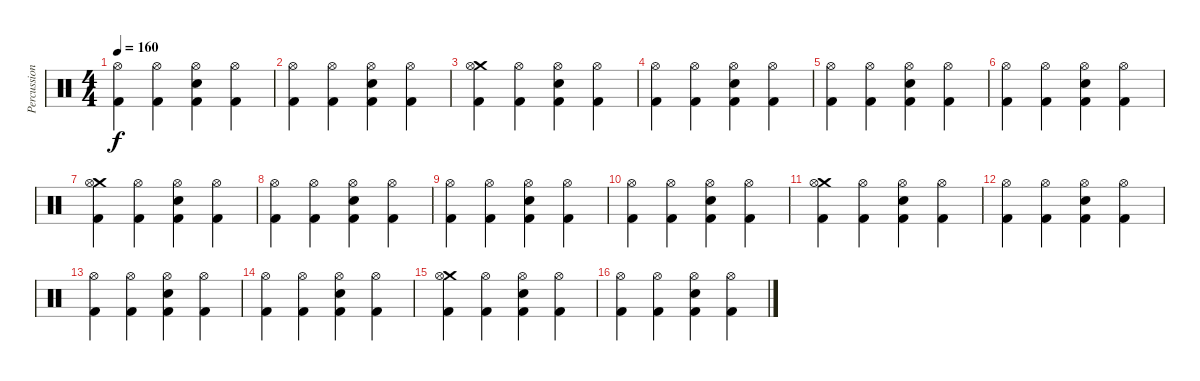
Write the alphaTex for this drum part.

\track ("Percussion" "Percussion") {instrument percussion}
\staff {score}
\articulation defaults
\ts (4 4)
\tempo 160
\clef neutral
\ks c
("Hi-Hat (open)" "Kick (hit) 2").4{dy f} ("Hi-Hat (open)" "Kick (hit) 2").4 ("Hi-Hat (open)" "Electric Snare (hit)" "Kick (hit) 2").4 ("Hi-Hat (open)" "Kick (hit) 2").4 |
("Hi-Hat (open)" "Kick (hit) 2").4 ("Hi-Hat (open)" "Kick (hit) 2").4 ("Hi-Hat (open)" "Electric Snare (hit)" "Kick (hit) 2").4 ("Hi-Hat (open)" "Kick (hit) 2").4 |
("Crash medium (hit)" "Hi-Hat (open)" "Kick (hit) 2").4 ("Hi-Hat (open)" "Kick (hit) 2").4 ("Hi-Hat (open)" "Electric Snare (hit)" "Kick (hit) 2").4 ("Hi-Hat (open)" "Kick (hit) 2").4 |
("Hi-Hat (open)" "Kick (hit) 2").4 ("Hi-Hat (open)" "Kick (hit) 2").4 ("Hi-Hat (open)" "Electric Snare (hit)" "Kick (hit) 2").4 ("Hi-Hat (open)" "Kick (hit) 2").4 |
("Hi-Hat (open)" "Kick (hit) 2").4 ("Hi-Hat (open)" "Kick (hit) 2").4 ("Hi-Hat (open)" "Electric Snare (hit)" "Kick (hit) 2").4 ("Hi-Hat (open)" "Kick (hit) 2").4 |
("Hi-Hat (open)" "Kick (hit) 2").4 ("Hi-Hat (open)" "Kick (hit) 2").4 ("Hi-Hat (open)" "Electric Snare (hit)" "Kick (hit) 2").4 ("Hi-Hat (open)" "Kick (hit) 2").4 |
("Crash medium (hit)" "Hi-Hat (open)" "Kick (hit) 2").4 ("Hi-Hat (open)" "Kick (hit) 2").4 ("Hi-Hat (open)" "Electric Snare (hit)" "Kick (hit) 2").4 ("Hi-Hat (open)" "Kick (hit) 2").4 |
("Hi-Hat (open)" "Kick (hit) 2").4 ("Hi-Hat (open)" "Kick (hit) 2").4 ("Hi-Hat (open)" "Electric Snare (hit)" "Kick (hit) 2").4 ("Hi-Hat (open)" "Kick (hit) 2").4 |
("Hi-Hat (open)" "Kick (hit) 2").4 ("Hi-Hat (open)" "Kick (hit) 2").4 ("Hi-Hat (open)" "Electric Snare (hit)" "Kick (hit) 2").4 ("Hi-Hat (open)" "Kick (hit) 2").4 |
("Hi-Hat (open)" "Kick (hit) 2").4 ("Hi-Hat (open)" "Kick (hit) 2").4 ("Hi-Hat (open)" "Electric Snare (hit)" "Kick (hit) 2").4 ("Hi-Hat (open)" "Kick (hit) 2").4 |
("Crash medium (hit)" "Hi-Hat (open)" "Kick (hit) 2").4 ("Hi-Hat (open)" "Kick (hit) 2").4 ("Hi-Hat (open)" "Electric Snare (hit)" "Kick (hit) 2").4 ("Hi-Hat (open)" "Kick (hit) 2").4 |
("Hi-Hat (open)" "Kick (hit) 2").4 ("Hi-Hat (open)" "Kick (hit) 2").4 ("Hi-Hat (open)" "Electric Snare (hit)" "Kick (hit) 2").4 ("Hi-Hat (open)" "Kick (hit) 2").4 |
("Hi-Hat (open)" "Kick (hit) 2").4 ("Hi-Hat (open)" "Kick (hit) 2").4 ("Hi-Hat (open)" "Electric Snare (hit)" "Kick (hit) 2").4 ("Hi-Hat (open)" "Kick (hit) 2").4 |
("Hi-Hat (open)" "Kick (hit) 2").4 ("Hi-Hat (open)" "Kick (hit) 2").4 ("Hi-Hat (open)" "Electric Snare (hit)" "Kick (hit) 2").4 ("Hi-Hat (open)" "Kick (hit) 2").4 |
("Crash medium (hit)" "Hi-Hat (open)" "Kick (hit) 2").4 ("Hi-Hat (open)" "Kick (hit) 2").4 ("Hi-Hat (open)" "Electric Snare (hit)" "Kick (hit) 2").4 ("Hi-Hat (open)" "Kick (hit) 2").4 |
("Hi-Hat (open)" "Kick (hit) 2").4 ("Hi-Hat (open)" "Kick (hit) 2").4 ("Hi-Hat (open)" "Electric Snare (hit)" "Kick (hit) 2").4 ("Hi-Hat (open)" "Kick (hit) 2").4
